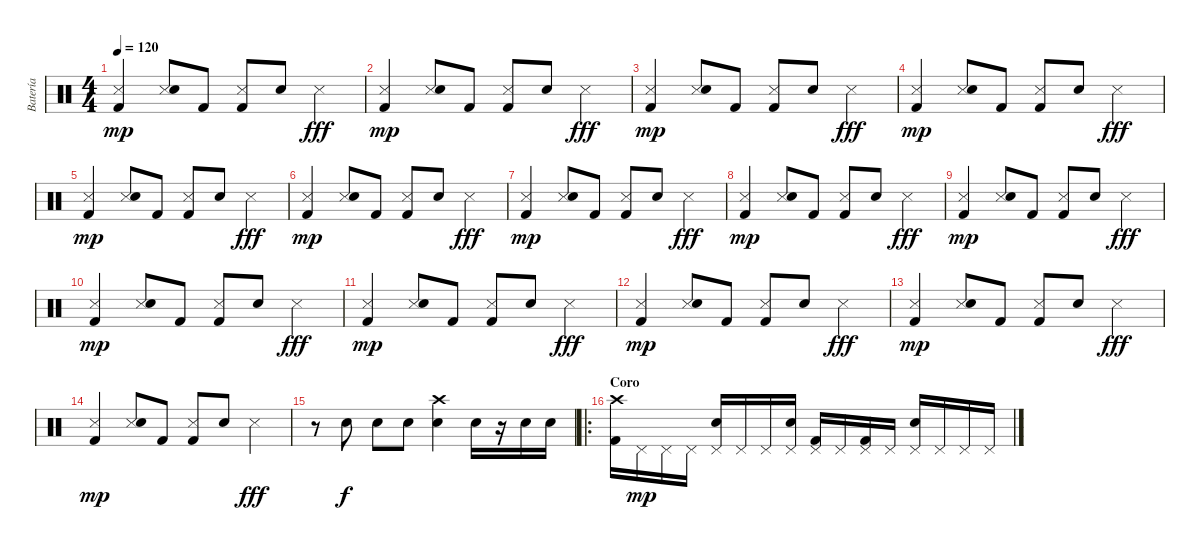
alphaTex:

\track ("Batería" "Batería") {instrument percussion}
\staff {score}
\articulation defaults
\ts (4 4)
\tempo 120
\clef neutral
\ks c
("Snare (side stick) 3" "Kick (hit) 2").4{dy mp} ("Snare (side stick) 3" "Snare (hit) 2").8 "Kick (hit) 2".8 ("Snare (side stick) 3" "Kick (hit) 2").8 "Snare (hit) 2".8 "Snare (side stick) 3".4{dy fff} |
("Snare (side stick) 3" "Kick (hit) 2").4{dy mp} ("Snare (side stick) 3" "Snare (hit) 2").8 "Kick (hit) 2".8 ("Snare (side stick) 3" "Kick (hit) 2").8 "Snare (hit) 2".8 "Snare (side stick) 3".4{dy fff} |
("Snare (side stick) 3" "Kick (hit) 2").4{dy mp} ("Snare (side stick) 3" "Snare (hit) 2").8 "Kick (hit) 2".8 ("Snare (side stick) 3" "Kick (hit) 2").8 "Snare (hit) 2".8 "Snare (side stick) 3".4{dy fff} |
("Snare (side stick) 3" "Kick (hit) 2").4{dy mp} ("Snare (side stick) 3" "Snare (hit) 2").8 "Kick (hit) 2".8 ("Snare (side stick) 3" "Kick (hit) 2").8 "Snare (hit) 2".8 "Snare (side stick) 3".4{dy fff} |
("Snare (side stick) 3" "Kick (hit) 2").4{dy mp} ("Snare (side stick) 3" "Snare (hit) 2").8 "Kick (hit) 2".8 ("Snare (side stick) 3" "Kick (hit) 2").8 "Snare (hit) 2".8 "Snare (side stick) 3".4{dy fff} |
("Snare (side stick) 3" "Kick (hit) 2").4{dy mp} ("Snare (side stick) 3" "Snare (hit) 2").8 "Kick (hit) 2".8 ("Snare (side stick) 3" "Kick (hit) 2").8 "Snare (hit) 2".8 "Snare (side stick) 3".4{dy fff} |
("Snare (side stick) 3" "Kick (hit) 2").4{dy mp} ("Snare (side stick) 3" "Snare (hit) 2").8 "Kick (hit) 2".8 ("Snare (side stick) 3" "Kick (hit) 2").8 "Snare (hit) 2".8 "Snare (side stick) 3".4{dy fff} |
("Snare (side stick) 3" "Kick (hit) 2").4{dy mp} ("Snare (side stick) 3" "Snare (hit) 2").8 "Kick (hit) 2".8 ("Snare (side stick) 3" "Kick (hit) 2").8 "Snare (hit) 2".8 "Snare (side stick) 3".4{dy fff} |
("Snare (side stick) 3" "Kick (hit) 2").4{dy mp} ("Snare (side stick) 3" "Snare (hit) 2").8 "Kick (hit) 2".8 ("Snare (side stick) 3" "Kick (hit) 2").8 "Snare (hit) 2".8 "Snare (side stick) 3".4{dy fff} |
("Snare (side stick) 3" "Kick (hit) 2").4{dy mp} ("Snare (side stick) 3" "Snare (hit) 2").8 "Kick (hit) 2".8 ("Snare (side stick) 3" "Kick (hit) 2").8 "Snare (hit) 2".8 "Snare (side stick) 3".4{dy fff} |
("Snare (side stick) 3" "Kick (hit) 2").4{dy mp} ("Snare (side stick) 3" "Snare (hit) 2").8 "Kick (hit) 2".8 ("Snare (side stick) 3" "Kick (hit) 2").8 "Snare (hit) 2".8 "Snare (side stick) 3".4{dy fff} |
("Snare (side stick) 3" "Kick (hit) 2").4{dy mp} ("Snare (side stick) 3" "Snare (hit) 2").8 "Kick (hit) 2".8 ("Snare (side stick) 3" "Kick (hit) 2").8 "Snare (hit) 2".8 "Snare (side stick) 3".4{dy fff} |
("Snare (side stick) 3" "Kick (hit) 2").4{dy mp} ("Snare (side stick) 3" "Snare (hit) 2").8 "Kick (hit) 2".8 ("Snare (side stick) 3" "Kick (hit) 2").8 "Snare (hit) 2".8 "Snare (side stick) 3".4{dy fff} |
("Snare (side stick) 3" "Kick (hit) 2").4{dy mp} ("Snare (side stick) 3" "Snare (hit) 2").8 "Kick (hit) 2".8 ("Snare (side stick) 3" "Kick (hit) 2").8 "Snare (hit) 2".8 "Snare (side stick) 3".4{dy fff} |
r.8 "Snare (hit) 2".8{dy f} "Snare (hit) 2".8 "Snare (hit) 2".8 ("Crash high (hit)" "Snare (hit) 2").4 "Snare (hit) 2".16 r.16 "Snare (hit) 2".16 "Snare (hit) 2".16 |
\ro
\section ("" "Coro")
("Crash high (hit)" "Kick (hit) 2").16 "Pedal Hi-Hat (hit)".16{dy mp} "Pedal Hi-Hat (hit)".16 "Pedal Hi-Hat (hit)".16 ("Pedal Hi-Hat (hit)" "Snare (hit) 2").16 "Pedal Hi-Hat (hit)".16 "Pedal Hi-Hat (hit)".16 ("Pedal Hi-Hat (hit)" "Snare (hit) 2").16 ("Pedal Hi-Hat (hit)" "Kick (hit) 2").16 "Pedal Hi-Hat (hit)".16 ("Pedal Hi-Hat (hit)" "Kick (hit) 2").16 "Pedal Hi-Hat (hit)".16 ("Pedal Hi-Hat (hit)" "Snare (hit) 2").16 "Pedal Hi-Hat (hit)".16 "Pedal Hi-Hat (hit)".16 "Pedal Hi-Hat (hit)".16
